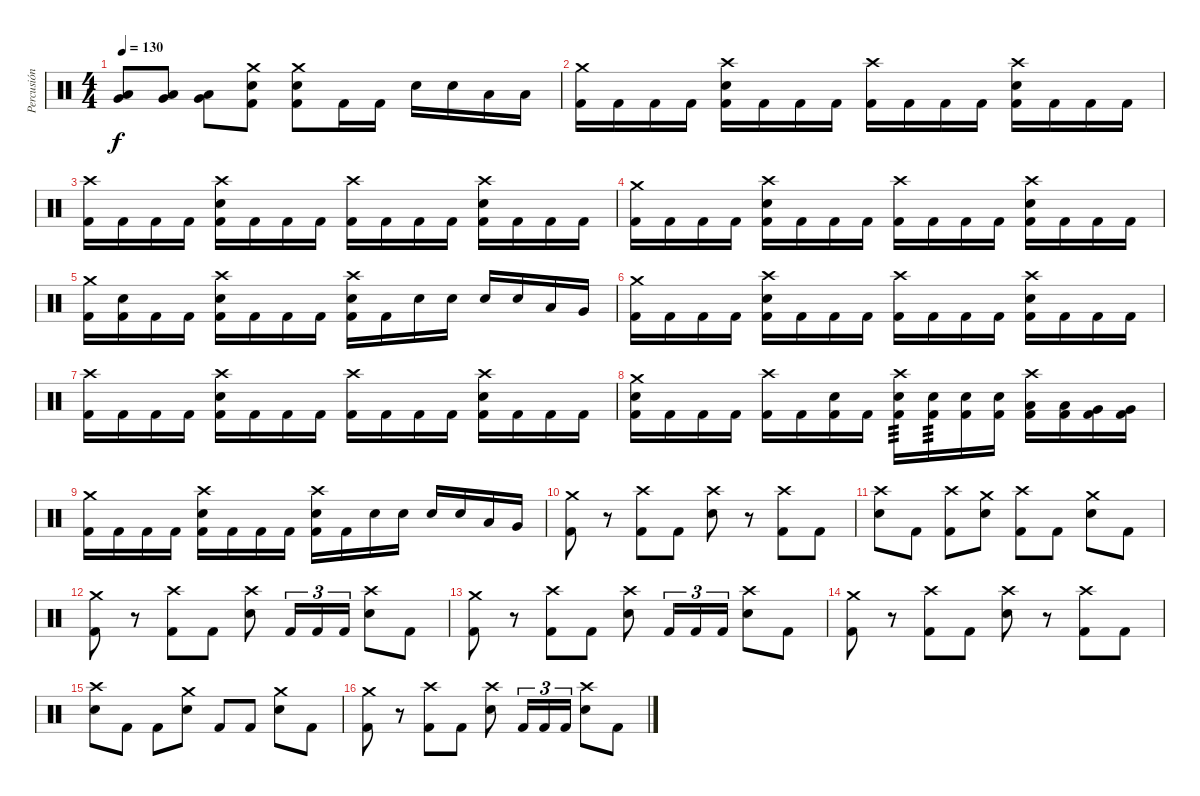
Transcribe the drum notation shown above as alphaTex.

\track ("Percusión" "Percusión") {instrument percussion}
\staff {score}
\articulation defaults
\ts (4 4)
\tempo 130
\clef neutral
\ks c
("Low Tom (hit)" "Very Low Tom (hit)").8{dy f} ("Low Tom (hit)" "Very Low Tom (hit)").8 ("Low Tom (hit)" "Very Low Tom (hit)").8 ("Crash medium (hit)" "Electric Snare (hit)" "Kick (hit) 2").8 ("Crash medium (hit)" "Electric Snare (hit)" "Kick (hit) 2").8 "Kick (hit) 2".16 "Kick (hit) 2".16 "Electric Snare (hit)".16 "Electric Snare (hit)".16 "Low Tom (hit)".16 "Low Tom (hit)".16 |
("Crash medium (hit)" "Kick (hit) 2").16 "Kick (hit) 2".16 "Kick (hit) 2".16 "Kick (hit) 2".16 ("Crash high (hit)" "Kick (hit) 2" "Electric Snare (hit)").16 "Kick (hit) 2".16 "Kick (hit) 2".16 "Kick (hit) 2".16 ("Crash high (hit)" "Kick (hit) 2").16 "Kick (hit) 2".16 "Kick (hit) 2".16 "Kick (hit) 2".16 ("Crash high (hit)" "Kick (hit) 2" "Electric Snare (hit)").16 "Kick (hit) 2".16 "Kick (hit) 2".16 "Kick (hit) 2".16 |
("Crash high (hit)" "Kick (hit) 2").16 "Kick (hit) 2".16 "Kick (hit) 2".16 "Kick (hit) 2".16 ("Crash high (hit)" "Kick (hit) 2" "Electric Snare (hit)").16 "Kick (hit) 2".16 "Kick (hit) 2".16 "Kick (hit) 2".16 ("Crash high (hit)" "Kick (hit) 2").16 "Kick (hit) 2".16 "Kick (hit) 2".16 "Kick (hit) 2".16 ("Crash high (hit)" "Kick (hit) 2" "Electric Snare (hit)").16 "Kick (hit) 2".16 "Kick (hit) 2".16 "Kick (hit) 2".16 |
("Crash medium (hit)" "Kick (hit) 2").16 "Kick (hit) 2".16 "Kick (hit) 2".16 "Kick (hit) 2".16 ("Crash high (hit)" "Kick (hit) 2" "Electric Snare (hit)").16 "Kick (hit) 2".16 "Kick (hit) 2".16 "Kick (hit) 2".16 ("Crash high (hit)" "Kick (hit) 2").16 "Kick (hit) 2".16 "Kick (hit) 2".16 "Kick (hit) 2".16 ("Crash high (hit)" "Kick (hit) 2" "Electric Snare (hit)").16 "Kick (hit) 2".16 "Kick (hit) 2".16 "Kick (hit) 2".16 |
("Crash medium (hit)" "Kick (hit) 2").16 ("Electric Snare (hit)" "Kick (hit) 2").16 "Kick (hit) 2".16 "Kick (hit) 2".16 ("Crash high (hit)" "Kick (hit) 2" "Electric Snare (hit)").16 "Kick (hit) 2".16 "Kick (hit) 2".16 "Kick (hit) 2".16 ("Crash high (hit)" "Kick (hit) 2" "Electric Snare (hit)").16 "Kick (hit) 2".16 "Electric Snare (hit)".16 "Electric Snare (hit)".16 "Electric Snare (hit)".16 "Electric Snare (hit)".16 "Low Tom (hit)".16 "Very Low Tom (hit)".16 |
("Crash medium (hit)" "Kick (hit) 2").16 "Kick (hit) 2".16 "Kick (hit) 2".16 "Kick (hit) 2".16 ("Crash high (hit)" "Kick (hit) 2" "Electric Snare (hit)").16 "Kick (hit) 2".16 "Kick (hit) 2".16 "Kick (hit) 2".16 ("Crash high (hit)" "Kick (hit) 2").16 "Kick (hit) 2".16 "Kick (hit) 2".16 "Kick (hit) 2".16 ("Crash high (hit)" "Kick (hit) 2" "Electric Snare (hit)").16 "Kick (hit) 2".16 "Kick (hit) 2".16 "Kick (hit) 2".16 |
("Crash high (hit)" "Kick (hit) 2").16 "Kick (hit) 2".16 "Kick (hit) 2".16 "Kick (hit) 2".16 ("Crash high (hit)" "Kick (hit) 2" "Electric Snare (hit)").16 "Kick (hit) 2".16 "Kick (hit) 2".16 "Kick (hit) 2".16 ("Crash high (hit)" "Kick (hit) 2").16 "Kick (hit) 2".16 "Kick (hit) 2".16 "Kick (hit) 2".16 ("Crash high (hit)" "Kick (hit) 2" "Electric Snare (hit)").16 "Kick (hit) 2".16 "Kick (hit) 2".16 "Kick (hit) 2".16 |
("Crash medium (hit)" "Kick (hit) 2" "Electric Snare (hit)").16 "Kick (hit) 2".16 "Kick (hit) 2".16 "Kick (hit) 2".16 ("Crash high (hit)" "Kick (hit) 2").16 "Kick (hit) 2".16 ("Kick (hit) 2" "Electric Snare (hit)").16 "Kick (hit) 2".16 ("Crash high (hit)" "Kick (hit) 2" "Electric Snare (hit)").16{tp 3} ("Kick (hit) 2" "Electric Snare (hit)").16{tp 3} ("Kick (hit) 2" "Electric Snare (hit)").16 ("Kick (hit) 2" "Electric Snare (hit)").16 ("Crash high (hit)" "Kick (hit) 2" "Low Tom (hit)").16 ("Kick (hit) 2" "Low Tom (hit)").16 ("Kick (hit) 2" "Very Low Tom (hit)").16 ("Kick (hit) 2" "Very Low Tom (hit)").16 |
("Crash medium (hit)" "Kick (hit) 2").16 "Kick (hit) 2".16 "Kick (hit) 2".16 "Kick (hit) 2".16 ("Crash high (hit)" "Kick (hit) 2" "Electric Snare (hit)").16 "Kick (hit) 2".16 "Kick (hit) 2".16 "Kick (hit) 2".16 ("Crash high (hit)" "Kick (hit) 2" "Electric Snare (hit)").16 "Kick (hit) 2".16 "Electric Snare (hit)".16 "Electric Snare (hit)".16 "Electric Snare (hit)".16 "Electric Snare (hit)".16 "Low Tom (hit)".16 "Very Low Tom (hit)".16 |
("Crash medium (hit)" "Kick (hit) 2").8 r.8 ("Crash high (hit)" "Kick (hit) 2").8 "Kick (hit) 2".8 ("Crash high (hit)" "Electric Snare (hit)").8 r.8 ("Crash high (hit)" "Kick (hit) 2").8 "Kick (hit) 2".8 |
("Electric Snare (hit)" "Crash high (hit)").8 "Kick (hit) 2".8 ("Kick (hit) 2" "Crash high (hit)").8 ("Electric Snare (hit)" "Crash medium (hit)").8 ("Kick (hit) 2" "Crash high (hit)").8 "Kick (hit) 2".8 ("Electric Snare (hit)" "Crash medium (hit)").8 "Kick (hit) 2".8 |
("Crash medium (hit)" "Kick (hit) 2").8 r.8 ("Crash high (hit)" "Kick (hit) 2").8 "Kick (hit) 2".8 ("Crash high (hit)" "Electric Snare (hit)").8 "Kick (hit) 2".16{tu (3 2)} "Kick (hit) 2".16{tu (3 2)} "Kick (hit) 2".16{tu (3 2)} ("Crash high (hit)" "Electric Snare (hit)").8 "Kick (hit) 2".8 |
("Crash medium (hit)" "Kick (hit) 2").8 r.8 ("Crash high (hit)" "Kick (hit) 2").8 "Kick (hit) 2".8 ("Crash high (hit)" "Electric Snare (hit)").8 "Kick (hit) 2".16{tu (3 2)} "Kick (hit) 2".16{tu (3 2)} "Kick (hit) 2".16{tu (3 2)} ("Crash high (hit)" "Electric Snare (hit)").8 "Kick (hit) 2".8 |
("Crash medium (hit)" "Kick (hit) 2").8 r.8 ("Crash high (hit)" "Kick (hit) 2").8 "Kick (hit) 2".8 ("Crash high (hit)" "Electric Snare (hit)").8 r.8 ("Crash high (hit)" "Kick (hit) 2").8 "Kick (hit) 2".8 |
("Electric Snare (hit)" "Crash high (hit)").8 "Kick (hit) 2".8 "Kick (hit) 2".8 ("Electric Snare (hit)" "Crash medium (hit)").8 "Kick (hit) 2".8 "Kick (hit) 2".8 ("Electric Snare (hit)" "Crash medium (hit)").8 "Kick (hit) 2".8 |
("Crash medium (hit)" "Kick (hit) 2").8 r.8 ("Crash high (hit)" "Kick (hit) 2").8 "Kick (hit) 2".8 ("Crash high (hit)" "Electric Snare (hit)").8 "Kick (hit) 2".16{tu (3 2)} "Kick (hit) 2".16{tu (3 2)} "Kick (hit) 2".16{tu (3 2)} ("Crash high (hit)" "Electric Snare (hit)").8 "Kick (hit) 2".8
